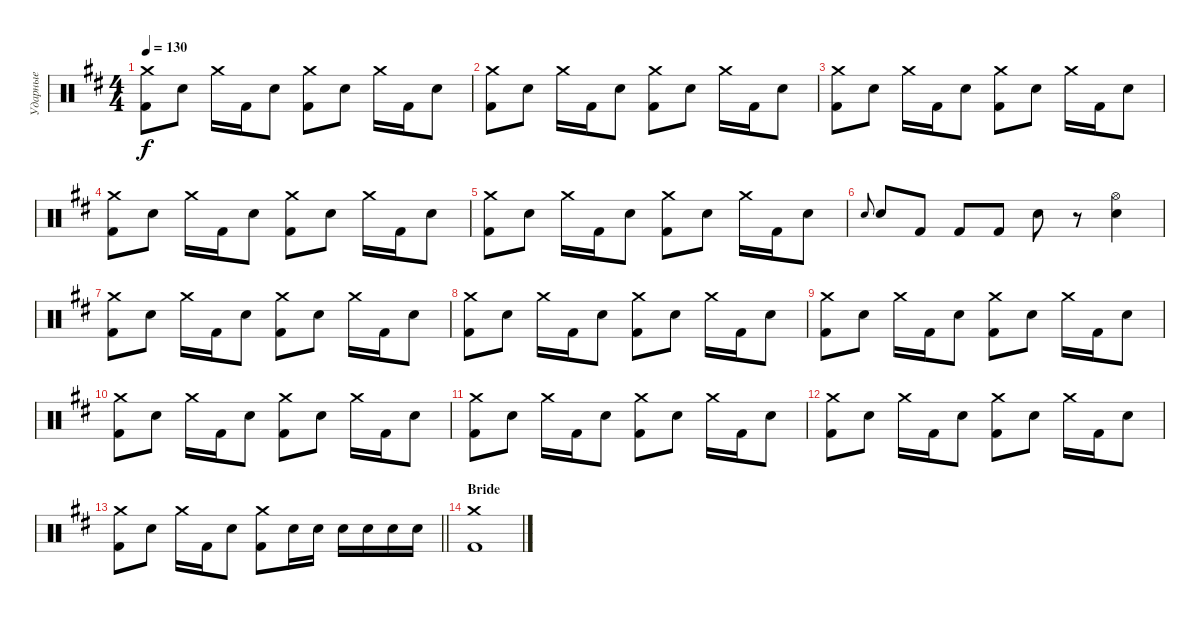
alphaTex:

\track ("Ударные" "Ударные") {instrument percussion}
\staff {score}
\articulation defaults
\ts (4 4)
\tempo 130
\clef neutral
\ks d
("Crash medium (hit)" "Kick (hit) 2").8{dy f} "Electric Snare (hit)".8 "Crash medium (hit)".16 "Kick (hit) 2".16 "Electric Snare (hit)".8 ("Crash medium (hit)" "Kick (hit) 2").8 "Electric Snare (hit)".8 "Crash medium (hit)".16 "Kick (hit) 2".16 "Electric Snare (hit)".8 |
("Crash medium (hit)" "Kick (hit) 2").8 "Electric Snare (hit)".8 "Crash medium (hit)".16 "Kick (hit) 2".16 "Electric Snare (hit)".8 ("Crash medium (hit)" "Kick (hit) 2").8 "Electric Snare (hit)".8 "Crash medium (hit)".16 "Kick (hit) 2".16 "Electric Snare (hit)".8 |
("Crash medium (hit)" "Kick (hit) 2").8 "Electric Snare (hit)".8 "Crash medium (hit)".16 "Kick (hit) 2".16 "Electric Snare (hit)".8 ("Crash medium (hit)" "Kick (hit) 2").8 "Electric Snare (hit)".8 "Crash medium (hit)".16 "Kick (hit) 2".16 "Electric Snare (hit)".8 |
("Crash medium (hit)" "Kick (hit) 2").8 "Electric Snare (hit)".8 "Crash medium (hit)".16 "Kick (hit) 2".16 "Electric Snare (hit)".8 ("Crash medium (hit)" "Kick (hit) 2").8 "Electric Snare (hit)".8 "Crash medium (hit)".16 "Kick (hit) 2".16 "Electric Snare (hit)".8 |
("Crash medium (hit)" "Kick (hit) 2").8 "Electric Snare (hit)".8 "Crash medium (hit)".16 "Kick (hit) 2".16 "Electric Snare (hit)".8 ("Crash medium (hit)" "Kick (hit) 2").8 "Electric Snare (hit)".8 "Crash medium (hit)".16 "Kick (hit) 2".16 "Electric Snare (hit)".8 |
"Electric Snare (hit)".8{gr onbeat} "Electric Snare (hit)".8 "Kick (hit) 2".8 "Kick (hit) 2".8 "Kick (hit) 2".8 "Electric Snare (hit)".8 r.8 ("Hi-Hat (open)" "Electric Snare (hit)").4 |
("Crash medium (hit)" "Kick (hit) 2").8 "Electric Snare (hit)".8 "Crash medium (hit)".16 "Kick (hit) 2".16 "Electric Snare (hit)".8 ("Crash medium (hit)" "Kick (hit) 2").8 "Electric Snare (hit)".8 "Crash medium (hit)".16 "Kick (hit) 2".16 "Electric Snare (hit)".8 |
("Crash medium (hit)" "Kick (hit) 2").8 "Electric Snare (hit)".8 "Crash medium (hit)".16 "Kick (hit) 2".16 "Electric Snare (hit)".8 ("Crash medium (hit)" "Kick (hit) 2").8 "Electric Snare (hit)".8 "Crash medium (hit)".16 "Kick (hit) 2".16 "Electric Snare (hit)".8 |
("Crash medium (hit)" "Kick (hit) 2").8 "Electric Snare (hit)".8 "Crash medium (hit)".16 "Kick (hit) 2".16 "Electric Snare (hit)".8 ("Crash medium (hit)" "Kick (hit) 2").8 "Electric Snare (hit)".8 "Crash medium (hit)".16 "Kick (hit) 2".16 "Electric Snare (hit)".8 |
("Crash medium (hit)" "Kick (hit) 2").8 "Electric Snare (hit)".8 "Crash medium (hit)".16 "Kick (hit) 2".16 "Electric Snare (hit)".8 ("Crash medium (hit)" "Kick (hit) 2").8 "Electric Snare (hit)".8 "Crash medium (hit)".16 "Kick (hit) 2".16 "Electric Snare (hit)".8 |
("Crash medium (hit)" "Kick (hit) 2").8 "Electric Snare (hit)".8 "Crash medium (hit)".16 "Kick (hit) 2".16 "Electric Snare (hit)".8 ("Crash medium (hit)" "Kick (hit) 2").8 "Electric Snare (hit)".8 "Crash medium (hit)".16 "Kick (hit) 2".16 "Electric Snare (hit)".8 |
("Crash medium (hit)" "Kick (hit) 2").8 "Electric Snare (hit)".8 "Crash medium (hit)".16 "Kick (hit) 2".16 "Electric Snare (hit)".8 ("Crash medium (hit)" "Kick (hit) 2").8 "Electric Snare (hit)".8 "Crash medium (hit)".16 "Kick (hit) 2".16 "Electric Snare (hit)".8 |
\barLineRight lightlight
("Crash medium (hit)" "Kick (hit) 2").8 "Electric Snare (hit)".8 "Crash medium (hit)".16 "Kick (hit) 2".16 "Electric Snare (hit)".8 ("Crash medium (hit)" "Kick (hit) 2").8 "Electric Snare (hit)".16 "Electric Snare (hit)".16 "Electric Snare (hit)".16 "Electric Snare (hit)".16 "Electric Snare (hit)".16 "Electric Snare (hit)".16 |
\section ("" "Bride")
("Crash medium (hit)" "Kick (hit) 2").1
